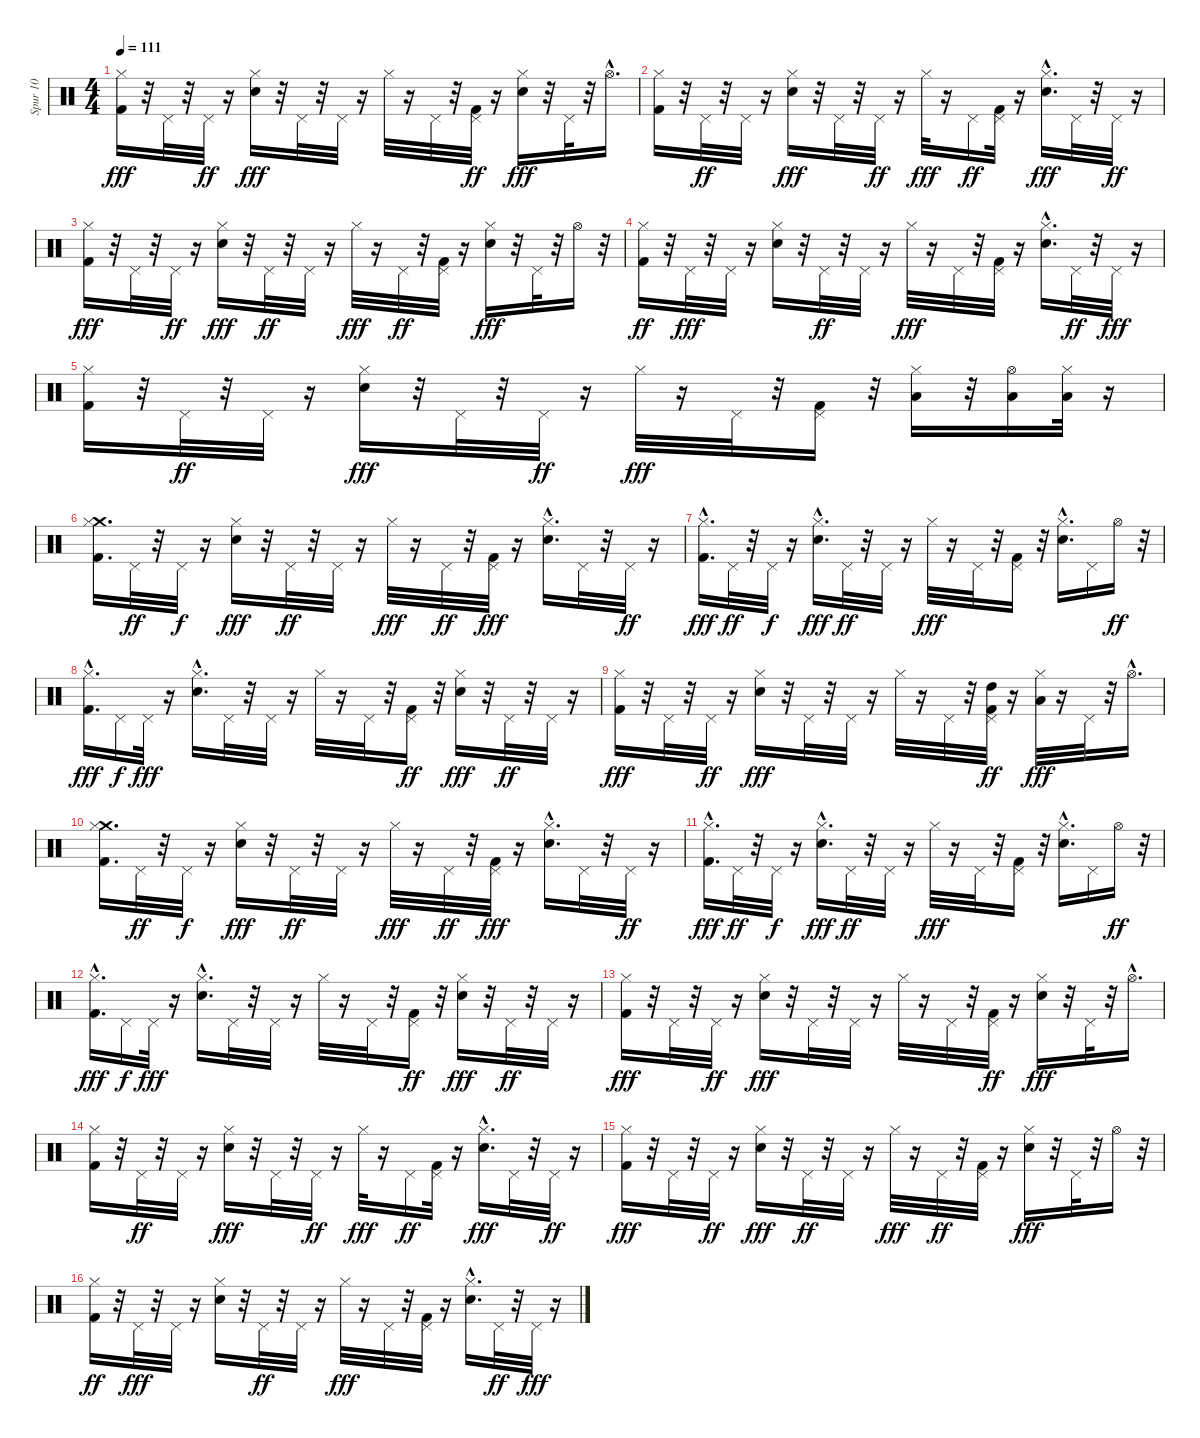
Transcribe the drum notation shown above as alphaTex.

\track ("Spur 10" "Spur 10") {instrument percussion}
\staff {score}
\articulation defaults
\ts (4 4)
\tempo 111
\clef neutral
\ks c
("Kick (hit) 2" "Hi-Hat (closed)").16{dy fff} r.32 "Pedal Hi-Hat (hit)".32 r.32 "Pedal Hi-Hat (hit)".32{dy ff} r.16 ("Snare (hit) 2" "Hi-Hat (closed)").16{dy fff} r.32 "Pedal Hi-Hat (hit)".32 r.32 "Pedal Hi-Hat (hit)".32 r.16 "Hi-Hat (closed)".32 r.16 "Pedal Hi-Hat (hit)".32 r.32 ("Kick (hit) 2" "Pedal Hi-Hat (hit)").32{dy ff} r.16 ("Snare (hit) 2" "Hi-Hat (closed)").16{dy fff} r.32 "Pedal Hi-Hat (hit)".32 r.32 "Hi-Hat (open)"{hac}.16{d} |
("Kick (hit) 2" "Hi-Hat (closed)").16 r.32 "Pedal Hi-Hat (hit)".32{dy ff} r.32 "Pedal Hi-Hat (hit)".32 r.16 ("Snare (hit) 2" "Hi-Hat (closed)").16{dy fff} r.32 "Pedal Hi-Hat (hit)".32 r.32 "Pedal Hi-Hat (hit)".32{dy ff} r.16 "Hi-Hat (closed)".32{dy fff} r.16 "Pedal Hi-Hat (hit)".16{dy ff} ("Kick (hit) 2" "Pedal Hi-Hat (hit)").32 r.16 ("Snare (hit) 2"{hac} "Hi-Hat (closed)").16{d dy fff} "Pedal Hi-Hat (hit)".32 r.32 "Pedal Hi-Hat (hit)".32{dy ff} r.16 |
("Kick (hit) 2" "Hi-Hat (closed)").16{dy fff} r.32 "Pedal Hi-Hat (hit)".32 r.32 "Pedal Hi-Hat (hit)".32{dy ff} r.16 ("Snare (hit) 2" "Hi-Hat (closed)").16{dy fff} r.32 "Pedal Hi-Hat (hit)".32{dy ff} r.32 "Pedal Hi-Hat (hit)".32 r.16 "Hi-Hat (closed)".32{dy fff} r.16 "Pedal Hi-Hat (hit)".32{dy ff} r.32 ("Kick (hit) 2" "Pedal Hi-Hat (hit)").32 r.16 ("Snare (hit) 2" "Hi-Hat (closed)").16{dy fff} r.32 "Pedal Hi-Hat (hit)".32 r.32 "Hi-Hat (open)".16 r.32 |
("Kick (hit) 2" "Hi-Hat (closed)").16{dy ff} r.32 "Pedal Hi-Hat (hit)".32{dy fff} r.32 "Pedal Hi-Hat (hit)".32 r.16 ("Snare (hit) 2" "Hi-Hat (closed)").16 r.32 "Pedal Hi-Hat (hit)".32{dy ff} r.32 "Pedal Hi-Hat (hit)".32 r.16 "Hi-Hat (closed)".32{dy fff} r.16 "Pedal Hi-Hat (hit)".32 r.32 ("Kick (hit) 2" "Pedal Hi-Hat (hit)").32 r.16 ("Snare (hit) 2"{hac} "Hi-Hat (closed)").16{d} "Pedal Hi-Hat (hit)".32{dy ff} r.32 "Pedal Hi-Hat (hit)".32{dy fff} r.16 |
("Kick (hit) 2" "Hi-Hat (closed)").16 r.32 "Pedal Hi-Hat (hit)".32{dy ff} r.32 "Pedal Hi-Hat (hit)".32 r.16 ("Snare (hit) 2" "Hi-Hat (closed)").16{dy fff} r.32 "Pedal Hi-Hat (hit)".32 r.32 "Pedal Hi-Hat (hit)".32{dy ff} r.16 "Hi-Hat (closed)".32{dy fff} r.16 "Pedal Hi-Hat (hit)".32 r.32 ("Kick (hit) 2" "Pedal Hi-Hat (hit)").16 r.32 ("Low Tom (hit)" "Hi-Hat (closed)").16 r.32 ("Low Tom (hit)" "Hi-Hat (open)").16 ("Low Floor Tom (hit)" "Hi-Hat (closed)").32 r.16 |
("Kick (hit) 2" "Crash medium (hit)" "Hi-Hat (closed)").16{d} "Pedal Hi-Hat (hit)".32{dy ff} r.32 "Pedal Hi-Hat (hit)".32{dy f} r.16 ("Snare (hit) 2" "Hi-Hat (closed)").16{dy fff} r.32 "Pedal Hi-Hat (hit)".32{dy ff} r.32 "Pedal Hi-Hat (hit)".32 r.16 "Hi-Hat (closed)".32{dy fff} r.16 "Pedal Hi-Hat (hit)".32{dy ff} r.32 ("Kick (hit) 2" "Pedal Hi-Hat (hit)").32{dy fff} r.16 ("Snare (hit) 2"{hac} "Hi-Hat (closed)").16{d} "Pedal Hi-Hat (hit)".32 r.32 "Pedal Hi-Hat (hit)".32{dy ff} r.16 |
("Kick (hit) 2"{hac} "Hi-Hat (closed)").16{d dy fff} "Pedal Hi-Hat (hit)".32{dy ff} r.32 "Pedal Hi-Hat (hit)".32{dy f} r.16 ("Snare (hit) 2"{hac} "Hi-Hat (closed)").16{d dy fff} "Pedal Hi-Hat (hit)".32{dy ff} r.32 "Pedal Hi-Hat (hit)".32 r.16 "Hi-Hat (closed)".32{dy fff} r.16 "Pedal Hi-Hat (hit)".32 r.32 ("Kick (hit) 2" "Pedal Hi-Hat (hit)").16 r.32 ("Snare (hit) 2"{hac} "Hi-Hat (closed)").16{d} "Pedal Hi-Hat (hit)".16 "Hi-Hat (open)".16{dy ff} r.32 |
("Kick (hit) 2"{hac} "Hi-Hat (closed)").16{d dy fff} "Pedal Hi-Hat (hit)".16{dy f} "Pedal Hi-Hat (hit)".32{dy fff} r.16 ("Snare (hit) 2"{hac} "Hi-Hat (closed)").16{d} "Pedal Hi-Hat (hit)".32 r.32 "Pedal Hi-Hat (hit)".32 r.16 "Hi-Hat (closed)".32 r.16 "Pedal Hi-Hat (hit)".32 r.32 ("Kick (hit) 2" "Pedal Hi-Hat (hit)").16{dy ff} r.32 ("Snare (hit) 2" "Hi-Hat (closed)").16{dy fff} r.32 "Pedal Hi-Hat (hit)".32{dy ff} r.32 "Pedal Hi-Hat (hit)".32 r.16 |
("Kick (hit) 2" "Hi-Hat (closed)").16{dy fff} r.32 "Pedal Hi-Hat (hit)".32 r.32 "Pedal Hi-Hat (hit)".32{dy ff} r.16 ("Snare (hit) 2" "Hi-Hat (closed)").16{dy fff} r.32 "Pedal Hi-Hat (hit)".32 r.32 "Pedal Hi-Hat (hit)".32 r.16 "Hi-Hat (closed)".32 r.16 "Pedal Hi-Hat (hit)".32 r.32 ("Kick (hit) 2" "Pedal Hi-Hat (hit)" "High Tom (hit)").32{dy ff} r.16 ("Low Tom (hit)" "Hi-Hat (closed)").32{dy fff} r.16 "Pedal Hi-Hat (hit)".32 r.32 "Hi-Hat (open)"{hac}.16{d} |
("Kick (hit) 2" "Crash medium (hit)" "Hi-Hat (closed)").16{d} "Pedal Hi-Hat (hit)".32{dy ff} r.32 "Pedal Hi-Hat (hit)".32{dy f} r.16 ("Snare (hit) 2" "Hi-Hat (closed)").16{dy fff} r.32 "Pedal Hi-Hat (hit)".32{dy ff} r.32 "Pedal Hi-Hat (hit)".32 r.16 "Hi-Hat (closed)".32{dy fff} r.16 "Pedal Hi-Hat (hit)".32{dy ff} r.32 ("Kick (hit) 2" "Pedal Hi-Hat (hit)").32{dy fff} r.16 ("Snare (hit) 2"{hac} "Hi-Hat (closed)").16{d} "Pedal Hi-Hat (hit)".32 r.32 "Pedal Hi-Hat (hit)".32{dy ff} r.16 |
("Kick (hit) 2"{hac} "Hi-Hat (closed)").16{d dy fff} "Pedal Hi-Hat (hit)".32{dy ff} r.32 "Pedal Hi-Hat (hit)".32{dy f} r.16 ("Snare (hit) 2"{hac} "Hi-Hat (closed)").16{d dy fff} "Pedal Hi-Hat (hit)".32{dy ff} r.32 "Pedal Hi-Hat (hit)".32 r.16 "Hi-Hat (closed)".32{dy fff} r.16 "Pedal Hi-Hat (hit)".32 r.32 ("Kick (hit) 2" "Pedal Hi-Hat (hit)").16 r.32 ("Snare (hit) 2"{hac} "Hi-Hat (closed)").16{d} "Pedal Hi-Hat (hit)".16 "Hi-Hat (open)".16{dy ff} r.32 |
("Kick (hit) 2"{hac} "Hi-Hat (closed)").16{d dy fff} "Pedal Hi-Hat (hit)".16{dy f} "Pedal Hi-Hat (hit)".32{dy fff} r.16 ("Snare (hit) 2"{hac} "Hi-Hat (closed)").16{d} "Pedal Hi-Hat (hit)".32 r.32 "Pedal Hi-Hat (hit)".32 r.16 "Hi-Hat (closed)".32 r.16 "Pedal Hi-Hat (hit)".32 r.32 ("Kick (hit) 2" "Pedal Hi-Hat (hit)").16{dy ff} r.32 ("Snare (hit) 2" "Hi-Hat (closed)").16{dy fff} r.32 "Pedal Hi-Hat (hit)".32{dy ff} r.32 "Pedal Hi-Hat (hit)".32 r.16 |
("Kick (hit) 2" "Hi-Hat (closed)").16{dy fff} r.32 "Pedal Hi-Hat (hit)".32 r.32 "Pedal Hi-Hat (hit)".32{dy ff} r.16 ("Snare (hit) 2" "Hi-Hat (closed)").16{dy fff} r.32 "Pedal Hi-Hat (hit)".32 r.32 "Pedal Hi-Hat (hit)".32 r.16 "Hi-Hat (closed)".32 r.16 "Pedal Hi-Hat (hit)".32 r.32 ("Kick (hit) 2" "Pedal Hi-Hat (hit)").32{dy ff} r.16 ("Snare (hit) 2" "Hi-Hat (closed)").16{dy fff} r.32 "Pedal Hi-Hat (hit)".32 r.32 "Hi-Hat (open)"{hac}.16{d} |
("Kick (hit) 2" "Hi-Hat (closed)").16 r.32 "Pedal Hi-Hat (hit)".32{dy ff} r.32 "Pedal Hi-Hat (hit)".32 r.16 ("Snare (hit) 2" "Hi-Hat (closed)").16{dy fff} r.32 "Pedal Hi-Hat (hit)".32 r.32 "Pedal Hi-Hat (hit)".32{dy ff} r.16 "Hi-Hat (closed)".32{dy fff} r.16 "Pedal Hi-Hat (hit)".16{dy ff} ("Kick (hit) 2" "Pedal Hi-Hat (hit)").32 r.16 ("Snare (hit) 2"{hac} "Hi-Hat (closed)").16{d dy fff} "Pedal Hi-Hat (hit)".32 r.32 "Pedal Hi-Hat (hit)".32{dy ff} r.16 |
("Kick (hit) 2" "Hi-Hat (closed)").16{dy fff} r.32 "Pedal Hi-Hat (hit)".32 r.32 "Pedal Hi-Hat (hit)".32{dy ff} r.16 ("Snare (hit) 2" "Hi-Hat (closed)").16{dy fff} r.32 "Pedal Hi-Hat (hit)".32{dy ff} r.32 "Pedal Hi-Hat (hit)".32 r.16 "Hi-Hat (closed)".32{dy fff} r.16 "Pedal Hi-Hat (hit)".32{dy ff} r.32 ("Kick (hit) 2" "Pedal Hi-Hat (hit)").32 r.16 ("Snare (hit) 2" "Hi-Hat (closed)").16{dy fff} r.32 "Pedal Hi-Hat (hit)".32 r.32 "Hi-Hat (open)".16 r.32 |
("Kick (hit) 2" "Hi-Hat (closed)").16{dy ff} r.32 "Pedal Hi-Hat (hit)".32{dy fff} r.32 "Pedal Hi-Hat (hit)".32 r.16 ("Snare (hit) 2" "Hi-Hat (closed)").16 r.32 "Pedal Hi-Hat (hit)".32{dy ff} r.32 "Pedal Hi-Hat (hit)".32 r.16 "Hi-Hat (closed)".32{dy fff} r.16 "Pedal Hi-Hat (hit)".32 r.32 ("Kick (hit) 2" "Pedal Hi-Hat (hit)").32 r.16 ("Snare (hit) 2"{hac} "Hi-Hat (closed)").16{d} "Pedal Hi-Hat (hit)".32{dy ff} r.32 "Pedal Hi-Hat (hit)".32{dy fff} r.16
